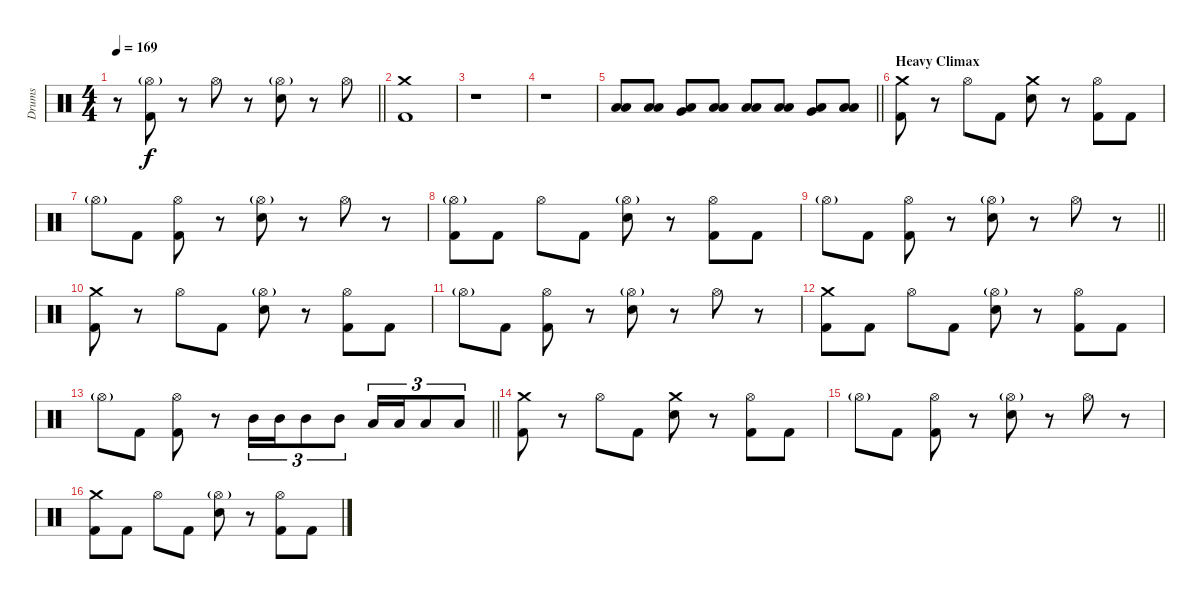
\track ("Drums" "Drums") {instrument percussion}
\staff {score}
\articulation defaults
\ts (4 4)
\tempo 169
\clef neutral
\barLineRight lightlight
\ks c
r.8{dy f} ("Hi-Hat (open)"{g} "Kick (hit) 2").8 r.8 "Hi-Hat (open)".8 r.8 ("Hi-Hat (open)"{g} "Electric Snare (hit)").8 r.8 "Hi-Hat (open)".8 |
("Crash medium (hit)" "Kick (hit) 2").1 |
r.1 |
r.1 |
\barLineRight lightlight
("Low Tom (hit)" "Low Tom (hit)").8 ("Low Tom (hit)" "Low Tom (hit)").8 ("Very Low Tom (hit)" "Low Tom (hit)").8 ("Low Tom (hit)" "Low Tom (hit)").8 ("Low Tom (hit)" "Low Tom (hit)").8 ("Low Tom (hit)" "Low Tom (hit)").8 ("Very Low Tom (hit)" "Low Tom (hit)").8 ("Low Tom (hit)" "Low Tom (hit)").8 |
\section ("" "Heavy Climax ")
("Crash medium (hit)" "Kick (hit) 2").8 r.8 "Hi-Hat (open)".8 "Kick (hit) 2".8 ("Crash medium (hit)" "Electric Snare (hit)").8 r.8 ("Hi-Hat (open)" "Kick (hit) 2").8 "Kick (hit) 2".8 |
"Hi-Hat (open)"{g}.8 "Kick (hit) 2".8 ("Hi-Hat (open)" "Kick (hit) 2").8 r.8 ("Hi-Hat (open)"{g} "Electric Snare (hit)").8 r.8 "Hi-Hat (open)".8 r.8 |
("Hi-Hat (open)"{g} "Kick (hit) 2").8 "Kick (hit) 2".8 "Hi-Hat (open)".8 "Kick (hit) 2".8 ("Hi-Hat (open)"{g} "Electric Snare (hit)").8 r.8 ("Hi-Hat (open)" "Kick (hit) 2").8 "Kick (hit) 2".8 |
\barLineRight lightlight "Hi-Hat (open)"{g}.8 "Kick (hit) 2".8
("Hi-Hat (open)" "Kick (hit) 2").8 r.8 ("Hi-Hat (open)"{g} "Electric Snare (hit)").8 r.8 "Hi-Hat (open)".8 r.8 |
("Crash medium (hit)" "Kick (hit) 2").8 r.8 "Hi-Hat (open)".8 "Kick (hit) 2".8 ("Hi-Hat (open)"{g} "Electric Snare (hit)").8 r.8 ("Hi-Hat (open)" "Kick (hit) 2").8 "Kick (hit) 2".8 |
"Hi-Hat (open)"{g}.8 "Kick (hit) 2".8 ("Hi-Hat (open)" "Kick (hit) 2").8 r.8 ("Hi-Hat (open)"{g} "Electric Snare (hit)").8 r.8 "Hi-Hat (open)".8 r.8 |
("Crash medium (hit)" "Kick (hit) 2").8 "Kick (hit) 2".8 "Hi-Hat (open)".8 "Kick (hit) 2".8 ("Hi-Hat (open)"{g} "Electric Snare (hit)").8 r.8 ("Hi-Hat (open)" "Kick (hit) 2").8 "Kick (hit) 2".8 |
\barLineRight lightlight "Hi-Hat (open)"{g}.8 "Kick (hit) 2".8
("Hi-Hat (open)" "Kick (hit) 2").8 r.8 "Mid Tom (hit)".16{tu (3 2)} "Mid Tom (hit)".16{tu (3 2)} "Mid Tom (hit)".8{tu (3 2)} "Mid Tom (hit)".8{tu (3 2)} "Low Tom (hit)".16{tu (3 2)} "Low Tom (hit)".16{tu (3 2)} "Low Tom (hit)".8{tu (3 2)} "Low Tom (hit)".8{tu (3 2)} |
("Crash medium (hit)" "Kick (hit) 2").8 r.8 "Hi-Hat (open)".8 "Kick (hit) 2".8 ("Crash medium (hit)" "Electric Snare (hit)").8 r.8 ("Hi-Hat (open)" "Kick (hit) 2").8 "Kick (hit) 2".8 |
"Hi-Hat (open)"{g}.8 "Kick (hit) 2".8 ("Hi-Hat (open)" "Kick (hit) 2").8 r.8 ("Hi-Hat (open)"{g} "Electric Snare (hit)").8 r.8 "Hi-Hat (open)".8 r.8 |
("Crash medium (hit)" "Kick (hit) 2").8 "Kick (hit) 2".8 "Hi-Hat (open)".8 "Kick (hit) 2".8 ("Hi-Hat (open)"{g} "Electric Snare (hit)").8 r.8 ("Hi-Hat (open)" "Kick (hit) 2").8 "Kick (hit) 2".8
